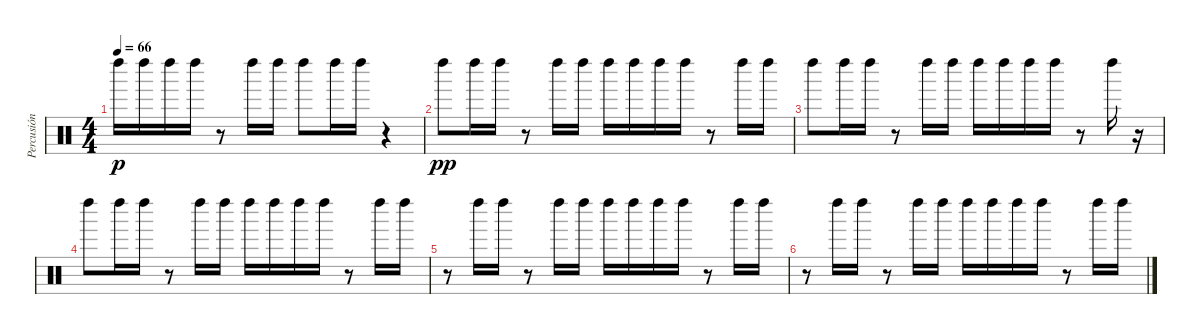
\track ("Percusión" "Percusión") {instrument percussion}
\staff {score}
\articulation defaults
\ts (4 4)
\tempo 66
\clef neutral
\ks c "Left Maraca (hit)".16{dy p} "Left Maraca (hit)".16 "Left Maraca (hit)".16 "Left Maraca (hit)".16
r.8 "Left Maraca (hit)".16 "Left Maraca (hit)".16 "Left Maraca (hit)".8 "Left Maraca (hit)".16 "Left Maraca (hit)".16 r.4 |
"Left Maraca (hit)".8{dy pp} "Left Maraca (hit)".16 "Left Maraca (hit)".16 r.8 "Left Maraca (hit)".16 "Left Maraca (hit)".16 "Left Maraca (hit)".16 "Left Maraca (hit)".16 "Left Maraca (hit)".16 "Left Maraca (hit)".16 r.8 "Left Maraca (hit)".16 "Left Maraca (hit)".16 |
"Left Maraca (hit)".8 "Left Maraca (hit)".16 "Left Maraca (hit)".16 r.8 "Left Maraca (hit)".16 "Left Maraca (hit)".16 "Left Maraca (hit)".16 "Left Maraca (hit)".16 "Left Maraca (hit)".16 "Left Maraca (hit)".16 r.8 "Left Maraca (hit)".16 r.16 |
"Left Maraca (hit)".8 "Left Maraca (hit)".16 "Left Maraca (hit)".16 r.8 "Left Maraca (hit)".16 "Left Maraca (hit)".16 "Left Maraca (hit)".16 "Left Maraca (hit)".16 "Left Maraca (hit)".16 "Left Maraca (hit)".16 r.8 "Left Maraca (hit)".16 "Left Maraca (hit)".16 |
r.8 "Left Maraca (hit)".16 "Left Maraca (hit)".16 r.8 "Left Maraca (hit)".16 "Left Maraca (hit)".16 "Left Maraca (hit)".16 "Left Maraca (hit)".16 "Left Maraca (hit)".16 "Left Maraca (hit)".16 r.8 "Left Maraca (hit)".16 "Left Maraca (hit)".16 |
r.8 "Left Maraca (hit)".16 "Left Maraca (hit)".16 r.8 "Left Maraca (hit)".16 "Left Maraca (hit)".16 "Left Maraca (hit)".16 "Left Maraca (hit)".16 "Left Maraca (hit)".16 "Left Maraca (hit)".16 r.8 "Left Maraca (hit)".16 "Left Maraca (hit)".16
